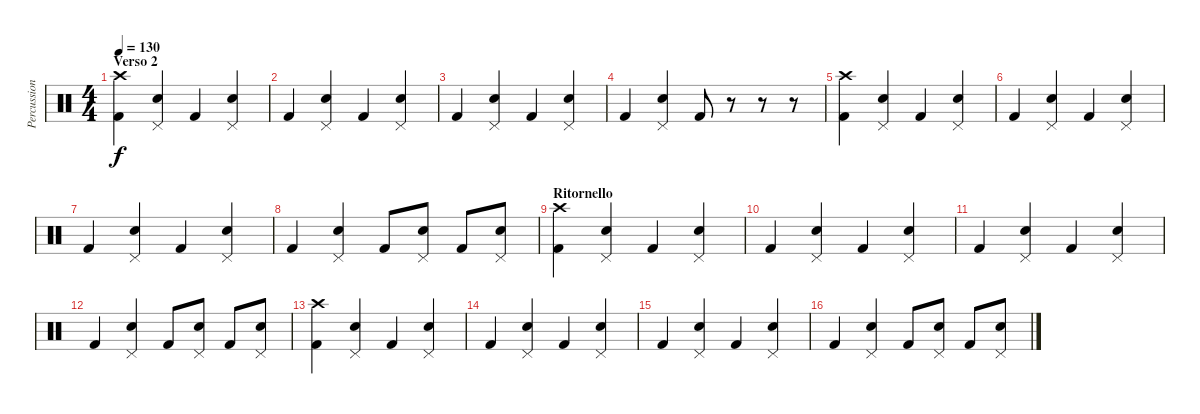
\track ("Percussioni" "Percussion") {instrument percussion}
\staff {score}
\articulation defaults
\ts (4 4)
\section ("" "Verso 2")
\tempo 130
\clef neutral
\ks c
("Crash high (hit)" "Kick (hit) 2").4{dy f volume 11} ("Pedal Hi-Hat (hit)" "Snare (hit) 2").4 "Kick (hit) 2".4 ("Pedal Hi-Hat (hit)" "Snare (hit) 2").4 |
"Kick (hit) 2".4 ("Pedal Hi-Hat (hit)" "Snare (hit) 2").4 "Kick (hit) 2".4 ("Pedal Hi-Hat (hit)" "Snare (hit) 2").4 |
"Kick (hit) 2".4 ("Pedal Hi-Hat (hit)" "Snare (hit) 2").4 "Kick (hit) 2".4 ("Pedal Hi-Hat (hit)" "Snare (hit) 2").4 |
"Kick (hit) 2".4 ("Pedal Hi-Hat (hit)" "Snare (hit) 2").4 "Kick (hit) 2".8 r.8 r.8 r.8 |
("Crash high (hit)" "Kick (hit) 2").4 ("Pedal Hi-Hat (hit)" "Snare (hit) 2").4 "Kick (hit) 2".4 ("Pedal Hi-Hat (hit)" "Snare (hit) 2").4 |
"Kick (hit) 2".4 ("Pedal Hi-Hat (hit)" "Snare (hit) 2").4 "Kick (hit) 2".4 ("Pedal Hi-Hat (hit)" "Snare (hit) 2").4 |
"Kick (hit) 2".4 ("Pedal Hi-Hat (hit)" "Snare (hit) 2").4 "Kick (hit) 2".4 ("Pedal Hi-Hat (hit)" "Snare (hit) 2").4 |
"Kick (hit) 2".4 ("Pedal Hi-Hat (hit)" "Snare (hit) 2").4 "Kick (hit) 2".8 ("Pedal Hi-Hat (hit)" "Snare (hit) 2").8 "Kick (hit) 2".8 ("Pedal Hi-Hat (hit)" "Snare (hit) 2").8 |
\section ("" "Ritornello")
("Crash high (hit)" "Kick (hit) 2").4{volume 13} ("Pedal Hi-Hat (hit)" "Snare (hit) 2").4 "Kick (hit) 2".4 ("Pedal Hi-Hat (hit)" "Snare (hit) 2").4 |
"Kick (hit) 2".4 ("Pedal Hi-Hat (hit)" "Snare (hit) 2").4 "Kick (hit) 2".4 ("Pedal Hi-Hat (hit)" "Snare (hit) 2").4 |
"Kick (hit) 2".4 ("Pedal Hi-Hat (hit)" "Snare (hit) 2").4 "Kick (hit) 2".4 ("Pedal Hi-Hat (hit)" "Snare (hit) 2").4 |
"Kick (hit) 2".4 ("Pedal Hi-Hat (hit)" "Snare (hit) 2").4 "Kick (hit) 2".8 ("Pedal Hi-Hat (hit)" "Snare (hit) 2").8 "Kick (hit) 2".8 ("Pedal Hi-Hat (hit)" "Snare (hit) 2").8 |
("Crash high (hit)" "Kick (hit) 2").4{volume 13} ("Pedal Hi-Hat (hit)" "Snare (hit) 2").4 "Kick (hit) 2".4 ("Pedal Hi-Hat (hit)" "Snare (hit) 2").4 |
"Kick (hit) 2".4 ("Pedal Hi-Hat (hit)" "Snare (hit) 2").4 "Kick (hit) 2".4 ("Pedal Hi-Hat (hit)" "Snare (hit) 2").4 |
"Kick (hit) 2".4 ("Pedal Hi-Hat (hit)" "Snare (hit) 2").4 "Kick (hit) 2".4 ("Pedal Hi-Hat (hit)" "Snare (hit) 2").4 |
"Kick (hit) 2".4 ("Pedal Hi-Hat (hit)" "Snare (hit) 2").4 "Kick (hit) 2".8 ("Pedal Hi-Hat (hit)" "Snare (hit) 2").8 "Kick (hit) 2".8 ("Pedal Hi-Hat (hit)" "Snare (hit) 2").8
